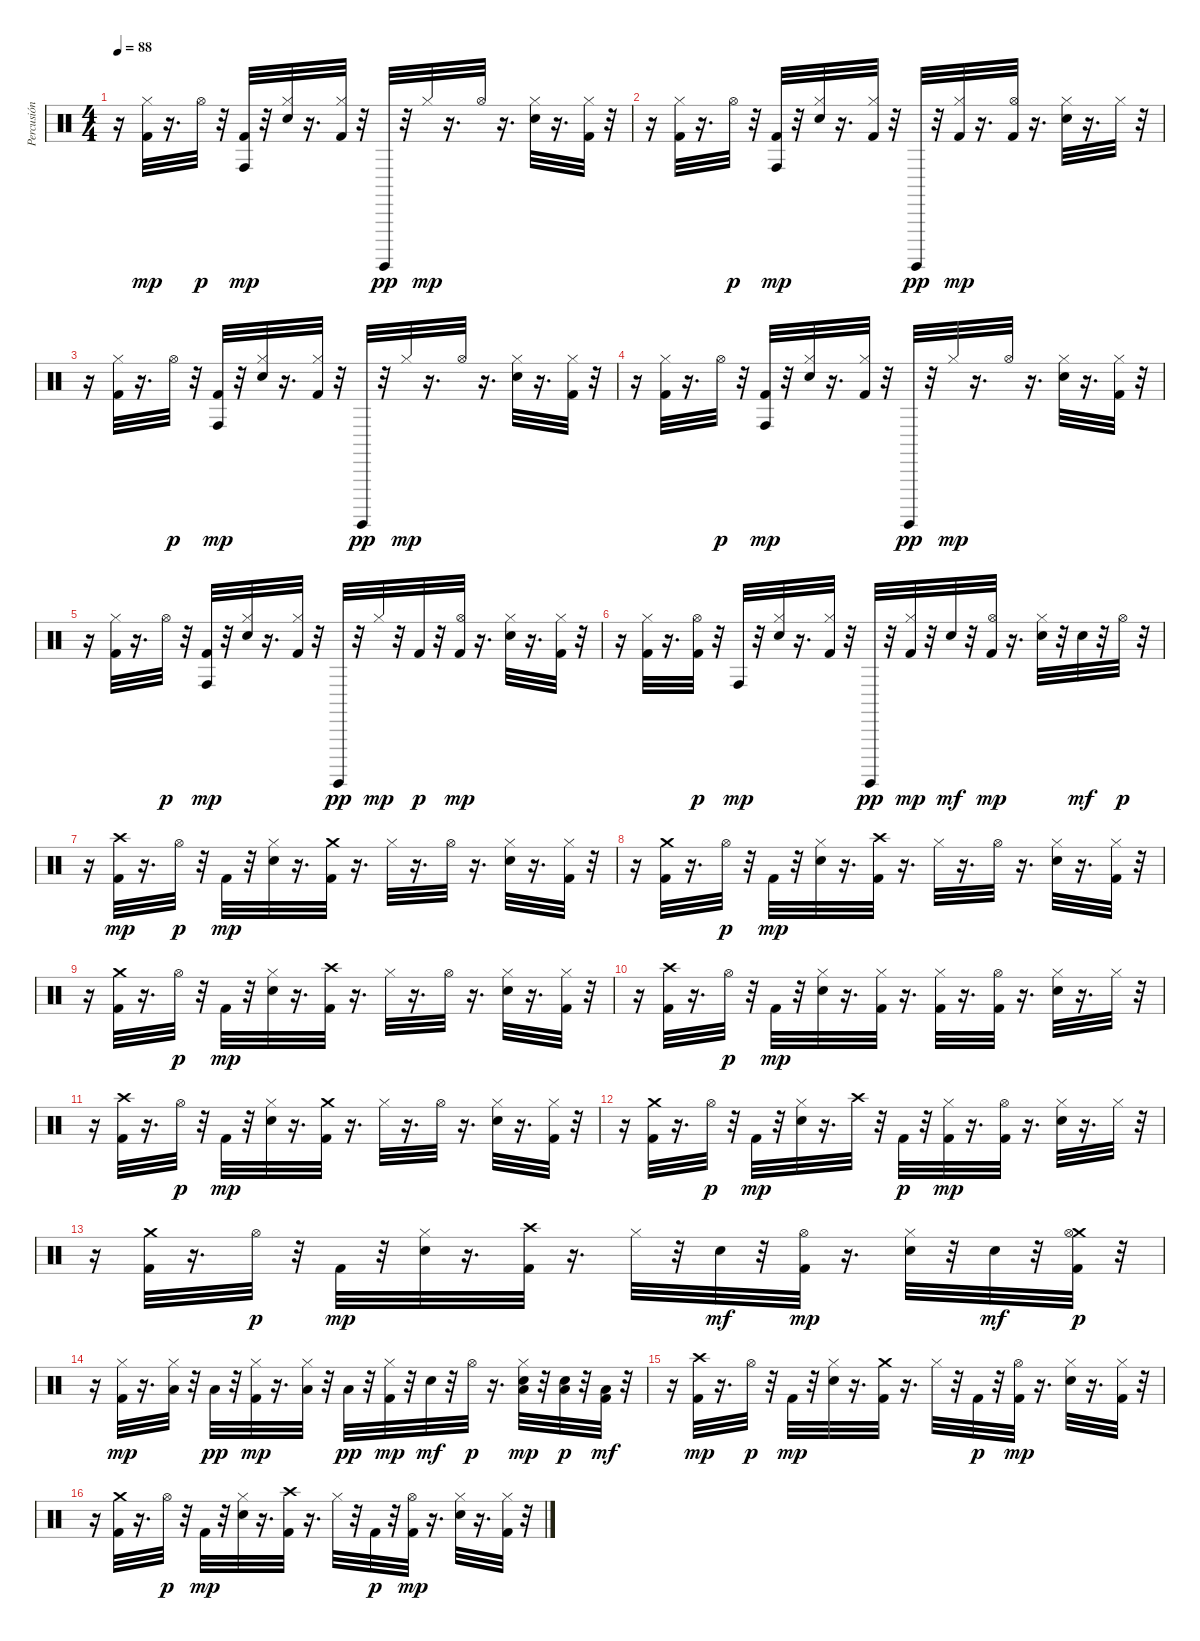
\track ("Percusión" "Percusión") {instrument percussion}
\staff {score}
\articulation defaults
\ts (4 4)
\tempo 88
\clef neutral
\ks c
r.16{dy mp} ("Kick (hit) 2" "Hi-Hat (closed)").32 r.16{d} "Hi-Hat (open)".32{dy p} r.32 ("Kick (hit) 2" "Conga high (hit)").32{dy mp} r.32 ("Electric Snare (hit)" "Hi-Hat (closed)").32 r.16{d} ("Kick (hit) 2" "Hi-Hat (closed)").32 r.32 "Surdo (hit)".32{dy pp} r.32 "Hi-Hat (closed)".32{dy mp} r.16{d} "Hi-Hat (open)".32 r.16{d} ("Electric Snare (hit)" "Hi-Hat (closed)").32 r.16{d} ("Kick (hit) 2" "Hi-Hat (closed)").32 r.32 |
r.16 ("Kick (hit) 2" "Hi-Hat (closed)").32 r.16{d} "Hi-Hat (open)".32{dy p} r.32 ("Kick (hit) 2" "Conga high (hit)").32{dy mp} r.32 ("Electric Snare (hit)" "Hi-Hat (closed)").32 r.16{d} ("Kick (hit) 2" "Hi-Hat (closed)").32 r.32 "Surdo (hit)".32{dy pp} r.32 ("Kick (hit) 2" "Hi-Hat (closed)").32{dy mp} r.16{d} ("Kick (hit) 2" "Hi-Hat (open)").32 r.16{d} ("Electric Snare (hit)" "Hi-Hat (closed)").32 r.16{d} "Hi-Hat (closed)".32 r.32 |
r.16 ("Kick (hit) 2" "Hi-Hat (closed)").32 r.16{d} "Hi-Hat (open)".32{dy p} r.32 ("Kick (hit) 2" "Conga high (hit)").32{dy mp} r.32 ("Electric Snare (hit)" "Hi-Hat (closed)").32 r.16{d} ("Kick (hit) 2" "Hi-Hat (closed)").32 r.32 "Surdo (hit)".32{dy pp} r.32 "Hi-Hat (closed)".32{dy mp} r.16{d} "Hi-Hat (open)".32 r.16{d} ("Electric Snare (hit)" "Hi-Hat (closed)").32 r.16{d} ("Kick (hit) 2" "Hi-Hat (closed)").32 r.32 |
r.16 ("Kick (hit) 2" "Hi-Hat (closed)").32 r.16{d} "Hi-Hat (open)".32{dy p} r.32 ("Kick (hit) 2" "Conga high (hit)").32{dy mp} r.32 ("Electric Snare (hit)" "Hi-Hat (closed)").32 r.16{d} ("Kick (hit) 2" "Hi-Hat (closed)").32 r.32 "Surdo (hit)".32{dy pp} r.32 "Hi-Hat (closed)".32{dy mp} r.16{d} "Hi-Hat (open)".32 r.16{d} ("Electric Snare (hit)" "Hi-Hat (closed)").32 r.16{d} ("Kick (hit) 2" "Hi-Hat (closed)").32 r.32 |
r.16 ("Kick (hit) 2" "Hi-Hat (closed)").32 r.16{d} "Hi-Hat (open)".32{dy p} r.32 ("Kick (hit) 2" "Conga high (hit)").32{dy mp} r.32 ("Electric Snare (hit)" "Hi-Hat (closed)").32 r.16{d} ("Kick (hit) 2" "Hi-Hat (closed)").32 r.32 "Surdo (hit)".32{dy pp} r.32 "Hi-Hat (closed)".32{dy mp} r.32 "Kick (hit) 2".32{dy p} r.32 ("Kick (hit) 2" "Hi-Hat (open)").32{dy mp} r.16{d} ("Electric Snare (hit)" "Hi-Hat (closed)").32 r.16{d} ("Kick (hit) 2" "Hi-Hat (closed)").32 r.32 |
r.16 ("Kick (hit) 2" "Hi-Hat (closed)").32 r.16{d} ("Kick (hit) 2" "Hi-Hat (open)").32{dy p} r.32 "Conga high (hit)".32{dy mp} r.32 ("Electric Snare (hit)" "Hi-Hat (closed)").32 r.16{d} ("Kick (hit) 2" "Hi-Hat (closed)").32 r.32 "Surdo (hit)".32{dy pp} r.32 ("Kick (hit) 2" "Hi-Hat (closed)").32{dy mp} r.32 "Electric Snare (hit)".32{dy mf} r.32 ("Kick (hit) 2" "Hi-Hat (open)").32{dy mp} r.16{d} ("Electric Snare (hit)" "Hi-Hat (closed)").32 r.32 "Electric Snare (hit)".32{dy mf} r.32 "Hi-Hat (open)".32{dy p} r.32 |
r.16 ("Kick (hit) 2" "Crash high (hit)").32{dy mp} r.16{d} "Hi-Hat (open)".32{dy p} r.32 "Kick (hit) 2".32{dy mp} r.32 ("Electric Snare (hit)" "Hi-Hat (closed)").32 r.16{d} ("Kick (hit) 2" "Crash medium (hit)").32 r.16{d} "Hi-Hat (closed)".32 r.16{d} "Hi-Hat (open)".32 r.16{d} ("Electric Snare (hit)" "Hi-Hat (closed)").32 r.16{d} ("Kick (hit) 2" "Hi-Hat (closed)").32 r.32 |
r.16 ("Kick (hit) 2" "Crash medium (hit)").32 r.16{d} "Hi-Hat (open)".32{dy p} r.32 "Kick (hit) 2".32{dy mp} r.32 ("Electric Snare (hit)" "Hi-Hat (closed)").32 r.16{d} ("Kick (hit) 2" "Crash high (hit)").32 r.16{d} "Hi-Hat (closed)".32 r.16{d} "Hi-Hat (open)".32 r.16{d} ("Electric Snare (hit)" "Hi-Hat (closed)").32 r.16{d} ("Kick (hit) 2" "Hi-Hat (closed)").32 r.32 |
r.16 ("Kick (hit) 2" "Crash medium (hit)").32 r.16{d} "Hi-Hat (open)".32{dy p} r.32 "Kick (hit) 2".32{dy mp} r.32 ("Electric Snare (hit)" "Hi-Hat (closed)").32 r.16{d} ("Kick (hit) 2" "Crash high (hit)").32 r.16{d} "Hi-Hat (closed)".32 r.16{d} "Hi-Hat (open)".32 r.16{d} ("Electric Snare (hit)" "Hi-Hat (closed)").32 r.16{d} ("Kick (hit) 2" "Hi-Hat (closed)").32 r.32 |
r.16 ("Kick (hit) 2" "Crash high (hit)").32 r.16{d} "Hi-Hat (open)".32{dy p} r.32 "Kick (hit) 2".32{dy mp} r.32 ("Electric Snare (hit)" "Hi-Hat (closed)").32 r.16{d} ("Kick (hit) 2" "Hi-Hat (closed)").32 r.16{d} ("Kick (hit) 2" "Hi-Hat (closed)").32 r.16{d} ("Kick (hit) 2" "Hi-Hat (open)").32 r.16{d} ("Electric Snare (hit)" "Hi-Hat (closed)").32 r.16{d} "Hi-Hat (closed)".32 r.32 |
r.16 ("Kick (hit) 2" "Crash high (hit)").32 r.16{d} "Hi-Hat (open)".32{dy p} r.32 "Kick (hit) 2".32{dy mp} r.32 ("Electric Snare (hit)" "Hi-Hat (closed)").32 r.16{d} ("Kick (hit) 2" "Crash medium (hit)").32 r.16{d} "Hi-Hat (closed)".32 r.16{d} "Hi-Hat (open)".32 r.16{d} ("Electric Snare (hit)" "Hi-Hat (closed)").32 r.16{d} ("Kick (hit) 2" "Hi-Hat (closed)").32 r.32 |
r.16 ("Kick (hit) 2" "Crash medium (hit)").32 r.16{d} "Hi-Hat (open)".32{dy p} r.32 "Kick (hit) 2".32{dy mp} r.32 ("Electric Snare (hit)" "Hi-Hat (closed)").32 r.16{d} "Crash high (hit)".32 r.32 "Kick (hit) 2".32{dy p} r.32 ("Kick (hit) 2" "Hi-Hat (closed)").32{dy mp} r.16{d} ("Kick (hit) 2" "Hi-Hat (open)").32 r.16{d} ("Electric Snare (hit)" "Hi-Hat (closed)").32 r.16{d} "Hi-Hat (closed)".32 r.32 |
r.16 ("Kick (hit) 2" "Crash medium (hit)").32 r.16{d} "Hi-Hat (open)".32{dy p} r.32 "Kick (hit) 2".32{dy mp} r.32 ("Electric Snare (hit)" "Hi-Hat (closed)").32 r.16{d} ("Kick (hit) 2" "Crash high (hit)").32 r.16{d} "Hi-Hat (closed)".32 r.32 "Electric Snare (hit)".32{dy mf} r.32 ("Kick (hit) 2" "Hi-Hat (open)").32{dy mp} r.16{d} ("Electric Snare (hit)" "Hi-Hat (closed)").32 r.32 "Electric Snare (hit)".32{dy mf} r.32 ("Kick (hit) 2" "Crash medium (hit)" "Hi-Hat (open)").32{dy p} r.32 |
r.16 ("Kick (hit) 2" "Hi-Hat (closed)").32{dy mp} r.16{d} ("Low Tom (hit)" "Hi-Hat (closed)").32 r.32 "Low Tom (hit)".32{dy pp} r.32 ("Kick (hit) 2" "Hi-Hat (closed)").32{dy mp} r.16{d} ("Low Tom (hit)" "Hi-Hat (closed)").32 r.32 "Low Tom (hit)".32{dy pp} r.32 ("Kick (hit) 2" "Hi-Hat (closed)").32{dy mp} r.32 "Electric Snare (hit)".32{dy mf} r.32 "Hi-Hat (open)".32{dy p} r.16{d} ("Electric Snare (hit)" "Low Tom (hit)" "Hi-Hat (closed)").32{dy mp} r.32 ("Electric Snare (hit)" "Low Tom (hit)").32{dy p} r.32 ("Low Tom (hit)" "Kick (hit) 2").32{dy mf} r.32 |
r.16 ("Kick (hit) 2" "Crash high (hit)").32{dy mp} r.16{d} "Hi-Hat (open)".32{dy p} r.32 "Kick (hit) 2".32{dy mp} r.32 ("Electric Snare (hit)" "Hi-Hat (closed)").32 r.16{d} ("Kick (hit) 2" "Crash medium (hit)").32 r.16{d} "Hi-Hat (closed)".32 r.32 "Kick (hit) 2".32{dy p} r.32 ("Kick (hit) 2" "Hi-Hat (open)").32{dy mp} r.16{d} ("Electric Snare (hit)" "Hi-Hat (closed)").32 r.16{d} ("Kick (hit) 2" "Hi-Hat (closed)").32 r.32 |
r.16 ("Kick (hit) 2" "Crash medium (hit)").32 r.16{d} "Hi-Hat (open)".32{dy p} r.32 "Kick (hit) 2".32{dy mp} r.32 ("Electric Snare (hit)" "Hi-Hat (closed)").32 r.16{d} ("Kick (hit) 2" "Crash high (hit)").32 r.16{d} "Hi-Hat (closed)".32 r.32 "Kick (hit) 2".32{dy p} r.32 ("Kick (hit) 2" "Hi-Hat (open)").32{dy mp} r.16{d} ("Electric Snare (hit)" "Hi-Hat (closed)").32 r.16{d} ("Kick (hit) 2" "Hi-Hat (closed)").32 r.32
